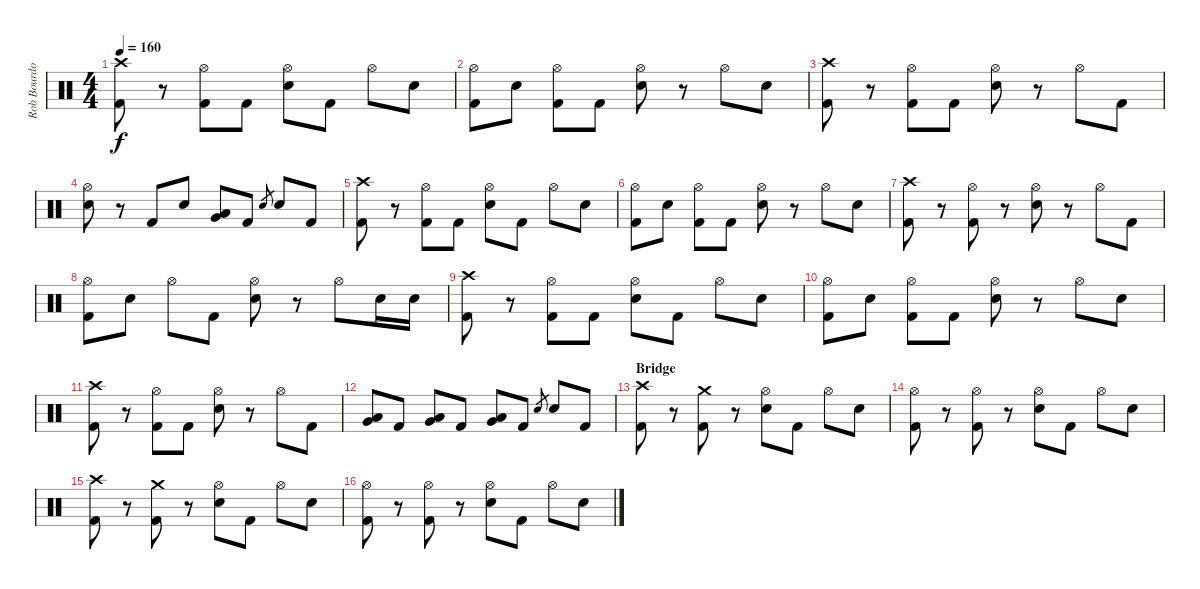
\track ("Rob Bourdon (Drums)" "Rob Bourdo") {instrument percussion}
\staff {score}
\articulation defaults
\ts (4 4)
\tempo 160
\clef neutral
\ks c
("Crash high (hit)" "Kick (hit) 2").8{dy f} r.8 ("Hi-Hat (open)" "Kick (hit) 2").8 "Kick (hit) 2".8 ("Hi-Hat (open)" "Electric Snare (hit)").8 "Kick (hit) 2".8 "Hi-Hat (open)".8 "Electric Snare (hit)".8 |
("Hi-Hat (open)" "Kick (hit) 2").8 "Electric Snare (hit)".8 ("Hi-Hat (open)" "Kick (hit) 2").8 "Kick (hit) 2".8 ("Hi-Hat (open)" "Electric Snare (hit)").8 r.8 "Hi-Hat (open)".8 "Electric Snare (hit)".8 |
("Crash high (hit)" "Kick (hit) 2").8 r.8 ("Hi-Hat (open)" "Kick (hit) 2").8 "Kick (hit) 2".8 ("Hi-Hat (open)" "Electric Snare (hit)").8 r.8 "Hi-Hat (open)".8 "Kick (hit) 2".8 |
("Hi-Hat (open)" "Electric Snare (hit)").8 r.8 "Kick (hit) 2".8 "Electric Snare (hit)".8 ("Low Tom (hit)" "Very Low Tom (hit)").8 "Kick (hit) 2".8 "Electric Snare (hit)".8{gr} "Electric Snare (hit)".8 "Kick (hit) 2".8 |
("Crash high (hit)" "Kick (hit) 2").8 r.8 ("Hi-Hat (open)" "Kick (hit) 2").8 "Kick (hit) 2".8 ("Hi-Hat (open)" "Electric Snare (hit)").8 "Kick (hit) 2".8 "Hi-Hat (open)".8 "Electric Snare (hit)".8 |
("Hi-Hat (open)" "Kick (hit) 2").8 "Electric Snare (hit)".8 ("Hi-Hat (open)" "Kick (hit) 2").8 "Kick (hit) 2".8 ("Hi-Hat (open)" "Electric Snare (hit)").8 r.8 "Hi-Hat (open)".8 "Electric Snare (hit)".8 |
("Crash high (hit)" "Kick (hit) 2").8 r.8 ("Hi-Hat (open)" "Kick (hit) 2").8 r.8 ("Hi-Hat (open)" "Electric Snare (hit)").8 r.8 "Hi-Hat (open)".8 "Kick (hit) 2".8 |
("Hi-Hat (open)" "Kick (hit) 2").8 "Electric Snare (hit)".8 "Hi-Hat (open)".8 "Kick (hit) 2".8 ("Hi-Hat (open)" "Electric Snare (hit)").8 r.8 "Hi-Hat (open)".8 "Electric Snare (hit)".16 "Electric Snare (hit)".16 |
("Crash high (hit)" "Kick (hit) 2").8 r.8 ("Hi-Hat (open)" "Kick (hit) 2").8 "Kick (hit) 2".8 ("Hi-Hat (open)" "Electric Snare (hit)").8 "Kick (hit) 2".8 "Hi-Hat (open)".8 "Electric Snare (hit)".8 |
("Hi-Hat (open)" "Kick (hit) 2").8 "Electric Snare (hit)".8 ("Hi-Hat (open)" "Kick (hit) 2").8 "Kick (hit) 2".8 ("Hi-Hat (open)" "Electric Snare (hit)").8 r.8 "Hi-Hat (open)".8 "Electric Snare (hit)".8 |
("Crash high (hit)" "Kick (hit) 2").8 r.8 ("Hi-Hat (open)" "Kick (hit) 2").8 "Kick (hit) 2".8 ("Hi-Hat (open)" "Electric Snare (hit)").8 r.8 "Hi-Hat (open)".8 "Kick (hit) 2".8 |
("Low Tom (hit)" "Very Low Tom (hit)").8 "Kick (hit) 2".8 ("Low Tom (hit)" "Very Low Tom (hit)").8 "Kick (hit) 2".8 ("Very Low Tom (hit)" "Low Floor Tom (hit)").8 "Kick (hit) 2".8 "Electric Snare (hit)".8{gr} "Electric Snare (hit)".8 "Kick (hit) 2".8 |
\section ("" "Bridge")
("Crash high (hit)" "Kick (hit) 2").8 r.8 ("Crash medium (hit)" "Kick (hit) 2").8 r.8 ("Hi-Hat (open)" "Electric Snare (hit)").8 "Kick (hit) 2".8 "Hi-Hat (open)".8 "Electric Snare (hit)".8 |
("Hi-Hat (open)" "Kick (hit) 2").8 r.8 ("Hi-Hat (open)" "Kick (hit) 2").8 r.8 ("Hi-Hat (open)" "Electric Snare (hit)").8 "Kick (hit) 2".8 "Hi-Hat (open)".8 "Electric Snare (hit)".8 |
("Crash high (hit)" "Kick (hit) 2").8 r.8 ("Crash medium (hit)" "Kick (hit) 2").8 r.8 ("Hi-Hat (open)" "Electric Snare (hit)").8 "Kick (hit) 2".8 "Hi-Hat (open)".8 "Electric Snare (hit)".8 |
("Hi-Hat (open)" "Kick (hit) 2").8 r.8 ("Hi-Hat (open)" "Kick (hit) 2").8 r.8 ("Hi-Hat (open)" "Electric Snare (hit)").8 "Kick (hit) 2".8 "Hi-Hat (open)".8 "Electric Snare (hit)".8
